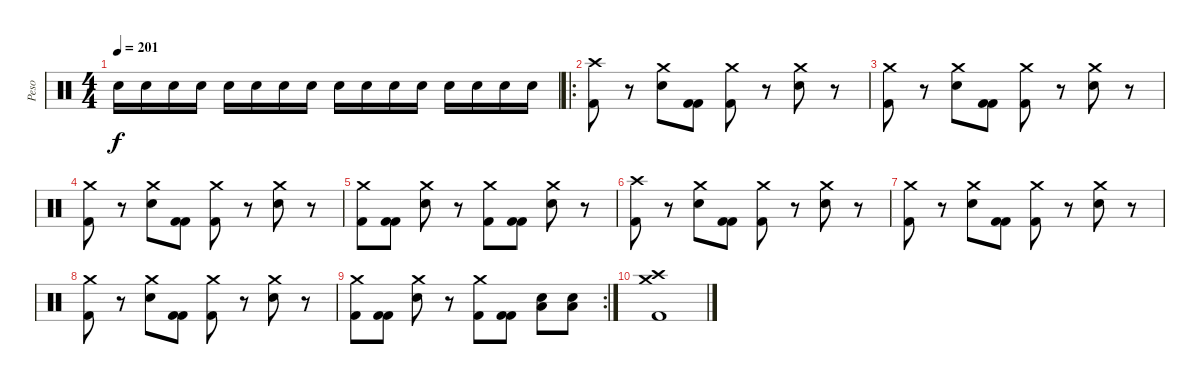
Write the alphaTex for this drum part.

\track ("Peso" "Peso") {instrument percussion}
\staff {score}
\articulation defaults
\ts (4 4)
\tempo 201
\clef neutral
\ks c "Snare (hit) 2".16{dy f volume 15} "Snare (hit) 2".16 "Snare (hit) 2".16 "Snare (hit) 2".16 "Snare (hit) 2".16 "Snare (hit) 2".16 "Snare (hit) 2".16 "Snare (hit) 2".16 "Snare (hit) 2".16 "Snare (hit) 2".16 "Snare (hit) 2".16 "Snare (hit) 2".16 "Snare (hit) 2".16 "Snare (hit) 2".16 "Snare (hit) 2".16 "Snare (hit) 2".16
|
\ro
("Crash high (hit)" "Kick (hit) 2").8 r.8 ("Crash medium (hit)" "Snare (hit) 2").8 ("Kick (hit) 2" "Kick (hit) 2").8 ("Crash medium (hit)" "Kick (hit) 2").8 r.8 ("Crash medium (hit)" "Snare (hit) 2").8 r.8 |
("Crash medium (hit)" "Kick (hit) 2").8 r.8 ("Crash medium (hit)" "Snare (hit) 2").8 ("Kick (hit) 2" "Kick (hit) 2").8 ("Crash medium (hit)" "Kick (hit) 2").8 r.8 ("Crash medium (hit)" "Snare (hit) 2").8 r.8 |
("Crash medium (hit)" "Kick (hit) 2").8 r.8 ("Crash medium (hit)" "Snare (hit) 2").8 ("Kick (hit) 2" "Kick (hit) 2").8 ("Crash medium (hit)" "Kick (hit) 2").8 r.8 ("Crash medium (hit)" "Snare (hit) 2").8 r.8 |
("Crash medium (hit)" "Kick (hit) 2").8 ("Kick (hit) 2" "Kick (hit) 2").8 ("Crash medium (hit)" "Snare (hit) 2").8 r.8 ("Crash medium (hit)" "Kick (hit) 2").8 ("Kick (hit) 2" "Kick (hit) 2").8 ("Crash medium (hit)" "Snare (hit) 2").8 r.8 |
("Crash high (hit)" "Kick (hit) 2").8 r.8 ("Crash medium (hit)" "Snare (hit) 2").8 ("Kick (hit) 2" "Kick (hit) 2").8 ("Crash medium (hit)" "Kick (hit) 2").8 r.8 ("Crash medium (hit)" "Snare (hit) 2").8 r.8 |
("Crash medium (hit)" "Kick (hit) 2").8 r.8 ("Crash medium (hit)" "Snare (hit) 2").8 ("Kick (hit) 2" "Kick (hit) 2").8 ("Crash medium (hit)" "Kick (hit) 2").8 r.8 ("Crash medium (hit)" "Snare (hit) 2").8 r.8 |
("Crash medium (hit)" "Kick (hit) 2").8 r.8 ("Crash medium (hit)" "Snare (hit) 2").8 ("Kick (hit) 2" "Kick (hit) 2").8 ("Crash medium (hit)" "Kick (hit) 2").8 r.8 ("Crash medium (hit)" "Snare (hit) 2").8 r.8 |
\rc 2
("Crash medium (hit)" "Kick (hit) 2").8 ("Kick (hit) 2" "Kick (hit) 2").8 ("Crash medium (hit)" "Snare (hit) 2").8 r.8 ("Crash medium (hit)" "Kick (hit) 2").8 ("Kick (hit) 2" "Kick (hit) 2").8 ("Low Floor Tom (hit)" "Snare (hit) 2").8 ("Low Floor Tom (hit)" "Snare (hit) 2").8 |
("Crash high (hit)" "Crash medium (hit)" "Kick (hit) 2").1
